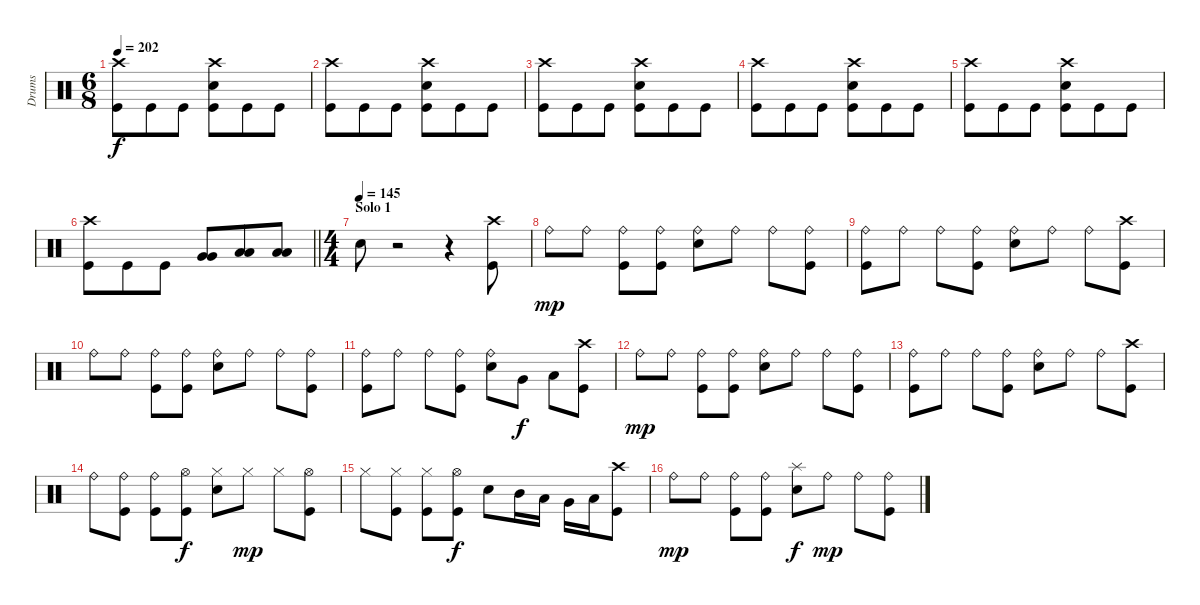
\track ("Drums" "Drums") {instrument percussion}
\staff {score}
\articulation defaults
\ts (6 8)
\tempo 202
\clef neutral
\ks c
("Crash high (hit)" "Kick (hit)").8{dy f} "Kick (hit)".8 "Kick (hit)".8 ("Crash high (hit)" "Electric Snare (hit)" "Kick (hit)").8 "Kick (hit)".8 "Kick (hit)".8 |
("Crash high (hit)" "Kick (hit)").8 "Kick (hit)".8 "Kick (hit)".8 ("Crash high (hit)" "Electric Snare (hit)" "Kick (hit)").8 "Kick (hit)".8 "Kick (hit)".8 |
("Crash high (hit)" "Kick (hit)").8 "Kick (hit)".8 "Kick (hit)".8 ("Crash high (hit)" "Electric Snare (hit)" "Kick (hit)").8 "Kick (hit)".8 "Kick (hit)".8 |
("Crash high (hit)" "Kick (hit)").8 "Kick (hit)".8 "Kick (hit)".8 ("Crash high (hit)" "Electric Snare (hit)" "Kick (hit)").8 "Kick (hit)".8 "Kick (hit)".8 |
("Crash high (hit)" "Kick (hit)").8 "Kick (hit)".8 "Kick (hit)".8 ("Crash high (hit)" "Electric Snare (hit)" "Kick (hit)").8 "Kick (hit)".8 "Kick (hit)".8 |
\barLineRight lightlight
("Crash high (hit)" "Kick (hit)").8 "Kick (hit)".8 "Kick (hit)".8 ("Very Low Tom (hit)" "Very Low Tom (hit)").8 ("Low Floor Tom (hit)" "Low Floor Tom (hit)").8 ("Low Floor Tom (hit)" "Low Floor Tom (hit)").8 |
\ts (4 4)
\section ("" "Solo 1")
\tempo (145)
"Electric Snare (hit)".8 r.2 r.4 ("Crash high (hit)" "Kick (hit)").8 |
"Ride (bell)".8{dy mp} "Ride (bell)".8 ("Ride (bell)" "Kick (hit)").8 ("Ride (bell)" "Kick (hit)").8 ("Ride (bell)" "Electric Snare (hit)").8 "Ride (bell)".8 "Ride (bell)".8 ("Ride (bell)" "Kick (hit)").8 |
("Ride (bell)" "Kick (hit)").8 "Ride (bell)".8 "Ride (bell)".8 ("Ride (bell)" "Kick (hit)").8 ("Ride (bell)" "Electric Snare (hit)").8 "Ride (bell)".8 "Ride (bell)".8 ("Crash high (hit)" "Kick (hit)").8 |
"Ride (bell)".8 "Ride (bell)".8 ("Ride (bell)" "Kick (hit)").8 ("Ride (bell)" "Kick (hit)").8 ("Ride (bell)" "Electric Snare (hit)").8 "Ride (bell)".8 "Ride (bell)".8 ("Ride (bell)" "Kick (hit)").8 |
("Ride (bell)" "Kick (hit)").8 "Ride (bell)".8 "Ride (bell)".8 ("Ride (bell)" "Kick (hit)").8 ("Ride (bell)" "Electric Snare (hit)").8 "Very Low Tom (hit)".8{dy f} "Low Floor Tom (hit)".8 ("Crash high (hit)" "Kick (hit)").8 |
"Ride (bell)".8{dy mp} "Ride (bell)".8 ("Ride (bell)" "Kick (hit)").8 ("Ride (bell)" "Kick (hit)").8 ("Ride (bell)" "Electric Snare (hit)").8 "Ride (bell)".8 "Ride (bell)".8 ("Ride (bell)" "Kick (hit)").8 |
("Ride (bell)" "Kick (hit)").8 "Ride (bell)".8 "Ride (bell)".8 ("Ride (bell)" "Kick (hit)").8 ("Ride (bell)" "Electric Snare (hit)").8 "Ride (bell)".8 "Ride (bell)".8 ("Crash high (hit)" "Kick (hit)").8 |
"Ride (bell)".8 ("Ride (bell)" "Kick (hit)").8 ("Ride (bell)" "Kick (hit)").8 ("Hi-Hat (open)" "Kick (hit)").8{dy f} ("Hi-Hat (closed)" "Electric Snare (hit)").8 "Hi-Hat (closed)".8{dy mp} "Hi-Hat (closed)".8 ("Hi-Hat (open)" "Kick (hit)").8 |
"Hi-Hat (closed)".8 ("Hi-Hat (closed)" "Kick (hit)").8 ("Hi-Hat (closed)" "Kick (hit)").8 ("Hi-Hat (open)" "Kick (hit)").8{dy f} "Electric Snare (hit)".8 "Mid Tom (hit)".16 "Low Tom (hit)".16 "Very Low Tom (hit)".16 "Low Floor Tom (hit)".16 ("Crash high (hit)" "Kick (hit)").8 |
"Ride (bell)".8{dy mp} "Ride (bell)".8 ("Ride (bell)" "Kick (hit)").8 ("Ride (bell)" "Kick (hit)").8 ("Splash (hit)" "Electric Snare (hit)").8{dy f} "Ride (bell)".8{dy mp} "Ride (bell)".8 ("Ride (bell)" "Kick (hit)").8
